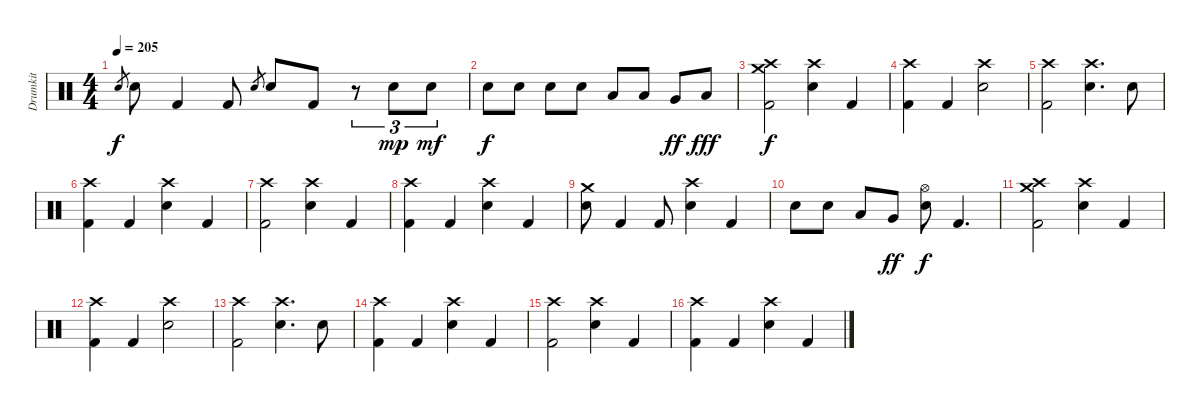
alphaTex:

\track ("Drumkit" "Drumkit") {instrument percussion}
\staff {score}
\articulation defaults
\ts (4 4)
\tempo 205
\clef neutral
\ks c "Electric Snare (hit)".8{gr dy f} "Electric Snare (hit)".8 "Kick (hit) 2".4 "Kick (hit) 2".8 "Electric Snare (hit)".8{gr} "Electric Snare (hit)".8 "Kick (hit) 2".8
r.8{tu (3 2)} "Electric Snare (hit)".8{tu (3 2) dy mp} "Electric Snare (hit)".8{tu (3 2) dy mf} |
"Electric Snare (hit)".8{dy f} "Electric Snare (hit)".8 "Electric Snare (hit)".8 "Electric Snare (hit)".8 "Low Tom (hit)".8 "Low Tom (hit)".8 "Very Low Tom (hit)".8{dy ff} "Low Floor Tom (hit)".8{dy fff} |
("Crash high (hit)" "Crash medium (hit)" "Kick (hit) 2").2{dy f} ("Crash high (hit)" "Electric Snare (hit)").4 "Kick (hit) 2".4 |
("Crash high (hit)" "Kick (hit) 2").4 "Kick (hit) 2".4 ("Crash high (hit)" "Electric Snare (hit)").2 |
("Crash high (hit)" "Kick (hit) 2").2 ("Crash high (hit)" "Electric Snare (hit)").4{d} "Electric Snare (hit)".8 |
("Crash high (hit)" "Kick (hit) 2").4 "Kick (hit) 2".4 ("Crash high (hit)" "Electric Snare (hit)").4 "Kick (hit) 2".4 |
("Crash high (hit)" "Kick (hit) 2").2 ("Crash high (hit)" "Electric Snare (hit)").4 "Kick (hit) 2".4 |
("Crash high (hit)" "Kick (hit) 2").4 "Kick (hit) 2".4 ("Crash high (hit)" "Electric Snare (hit)").4 "Kick (hit) 2".4 |
("Crash medium (hit)" "Electric Snare (hit)").8 "Kick (hit) 2".4 "Kick (hit) 2".8 ("Crash high (hit)" "Electric Snare (hit)").4 "Kick (hit) 2".4 |
"Electric Snare (hit)".8 "Electric Snare (hit)".8 "Low Tom (hit)".8 "Very Low Tom (hit)".8{dy ff} ("Hi-Hat (open)" "Electric Snare (hit)").8{dy f} "Kick (hit) 2".4{d} |
("Crash high (hit)" "Crash medium (hit)" "Kick (hit) 2").2 ("Crash high (hit)" "Electric Snare (hit)").4 "Kick (hit) 2".4 |
("Crash high (hit)" "Kick (hit) 2").4 "Kick (hit) 2".4 ("Crash high (hit)" "Electric Snare (hit)").2 |
("Crash high (hit)" "Kick (hit) 2").2 ("Crash high (hit)" "Electric Snare (hit)").4{d} "Electric Snare (hit)".8 |
("Crash high (hit)" "Kick (hit) 2").4 "Kick (hit) 2".4 ("Crash high (hit)" "Electric Snare (hit)").4 "Kick (hit) 2".4 |
("Crash high (hit)" "Kick (hit) 2").2 ("Crash high (hit)" "Electric Snare (hit)").4 "Kick (hit) 2".4 |
("Crash high (hit)" "Kick (hit) 2").4 "Kick (hit) 2".4 ("Crash high (hit)" "Electric Snare (hit)").4 "Kick (hit) 2".4
